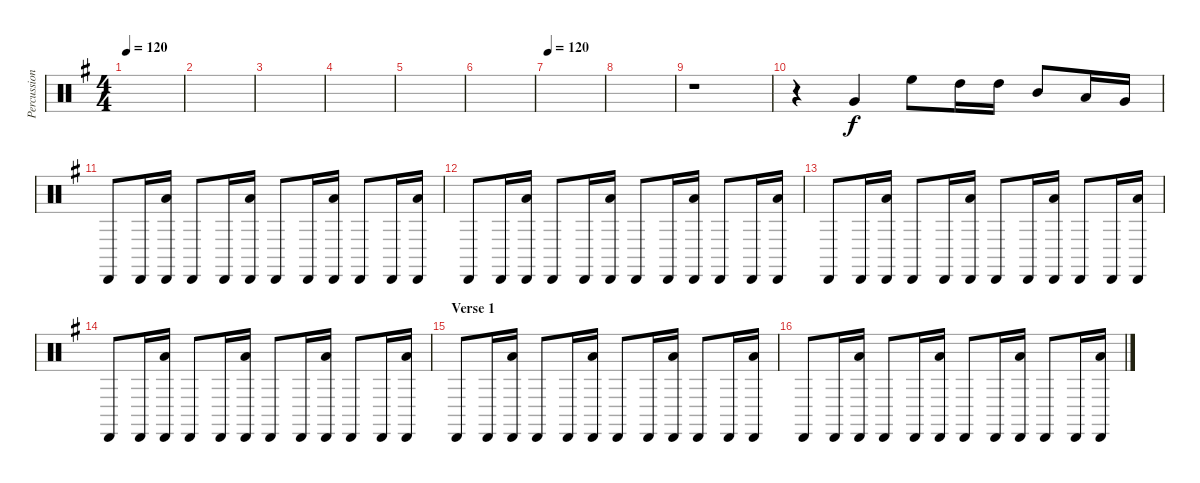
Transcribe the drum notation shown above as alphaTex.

\track ("Percussion" "Percussion") {instrument percussion}
\staff {score}
\articulation defaults
\ts (4 4)
\tempo 120
\tempo 104
\tempo 120
\clef neutral
\ks g
|
|
|
|
|
|
\tempo 120
|
|
r.1 |
r.4 "Very Low Tom (hit)".4 "High Floor Tom (hit)".8 "High Tom (hit)".16 "High Tom (hit)".16 "Mid Tom (hit)".8 "Low Tom (hit)".16 "Very Low Tom (hit)".16 |
"Cabasa (hit)".8 "Cabasa (hit)".16 ("Cabasa (hit)" "Low Floor Tom (hit)").16 "Cabasa (hit)".8 "Cabasa (hit)".16 ("Cabasa (hit)" "Low Floor Tom (hit)").16 "Cabasa (hit)".8 "Cabasa (hit)".16 ("Cabasa (hit)" "Low Floor Tom (hit)").16 "Cabasa (hit)".8 "Cabasa (hit)".16 ("Cabasa (hit)" "Low Floor Tom (hit)").16 |
"Cabasa (hit)".8 "Cabasa (hit)".16 ("Cabasa (hit)" "Low Floor Tom (hit)").16 "Cabasa (hit)".8 "Cabasa (hit)".16 ("Cabasa (hit)" "Low Floor Tom (hit)").16 "Cabasa (hit)".8 "Cabasa (hit)".16 ("Cabasa (hit)" "Low Floor Tom (hit)").16 "Cabasa (hit)".8 "Cabasa (hit)".16 ("Cabasa (hit)" "Low Floor Tom (hit)").16 |
"Cabasa (hit)".8 "Cabasa (hit)".16 ("Cabasa (hit)" "Low Floor Tom (hit)").16 "Cabasa (hit)".8 "Cabasa (hit)".16 ("Cabasa (hit)" "Low Floor Tom (hit)").16 "Cabasa (hit)".8 "Cabasa (hit)".16 ("Cabasa (hit)" "Low Floor Tom (hit)").16 "Cabasa (hit)".8 "Cabasa (hit)".16 ("Cabasa (hit)" "Low Floor Tom (hit)").16 |
"Cabasa (hit)".8 "Cabasa (hit)".16 ("Cabasa (hit)" "Low Floor Tom (hit)").16 "Cabasa (hit)".8 "Cabasa (hit)".16 ("Cabasa (hit)" "Low Floor Tom (hit)").16 "Cabasa (hit)".8 "Cabasa (hit)".16 ("Cabasa (hit)" "Low Floor Tom (hit)").16 "Cabasa (hit)".8 "Cabasa (hit)".16 ("Cabasa (hit)" "Low Floor Tom (hit)").16 |
\section ("" "Verse 1")
"Cabasa (hit)".8 "Cabasa (hit)".16 ("Cabasa (hit)" "Low Floor Tom (hit)").16 "Cabasa (hit)".8 "Cabasa (hit)".16 ("Cabasa (hit)" "Low Floor Tom (hit)").16 "Cabasa (hit)".8 "Cabasa (hit)".16 ("Cabasa (hit)" "Low Floor Tom (hit)").16 "Cabasa (hit)".8 "Cabasa (hit)".16 ("Cabasa (hit)" "Low Floor Tom (hit)").16 |
"Cabasa (hit)".8 "Cabasa (hit)".16 ("Cabasa (hit)" "Low Floor Tom (hit)").16 "Cabasa (hit)".8 "Cabasa (hit)".16 ("Cabasa (hit)" "Low Floor Tom (hit)").16 "Cabasa (hit)".8 "Cabasa (hit)".16 ("Cabasa (hit)" "Low Floor Tom (hit)").16 "Cabasa (hit)".8 "Cabasa (hit)".16 ("Cabasa (hit)" "Low Floor Tom (hit)").16
